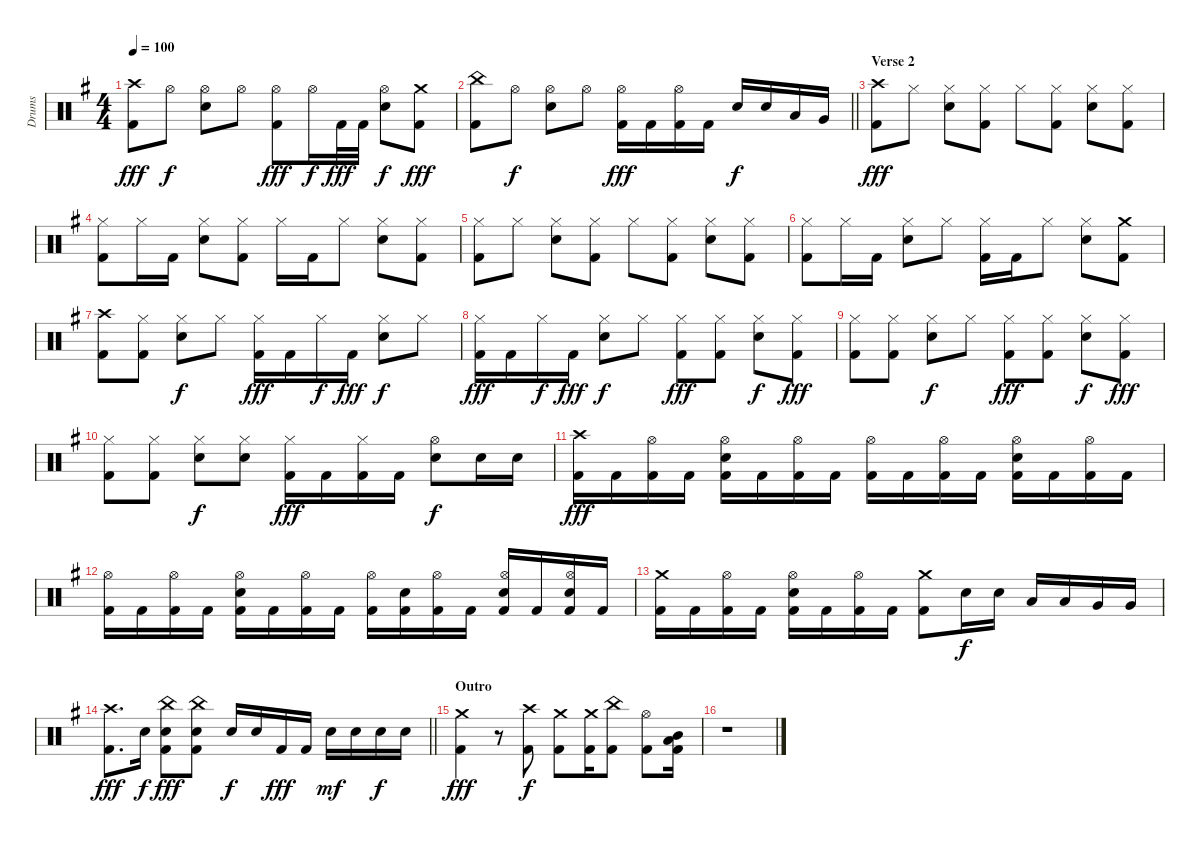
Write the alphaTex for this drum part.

\track ("Drums" "Drums") {instrument percussion}
\staff {score}
\articulation defaults
\ts (4 4)
\tempo 100
\clef neutral
\ks eminor
("Crash high (hit)" "Kick (hit) 2").8{dy fff} "Hi-Hat (open)".8{dy f} ("Hi-Hat (open)" "Snare (hit) 2").8 "Hi-Hat (open)".8 ("Hi-Hat (open)" "Kick (hit) 2").8{dy fff} "Hi-Hat (open)".16{dy f} "Kick (hit) 2".32{dy fff} "Kick (hit) 2".32 ("Hi-Hat (open)" "Snare (hit) 2").8{dy f} ("Crash medium (hit)" "Kick (hit) 2").8{dy fff} |
\barLineRight lightlight
("China (hit)" "Kick (hit) 2").8 "Hi-Hat (open)".8{dy f} ("Hi-Hat (open)" "Snare (hit) 2").8 "Hi-Hat (open)".8 ("Hi-Hat (open)" "Kick (hit) 2").16{dy fff} "Kick (hit) 2".16 ("Hi-Hat (open)" "Kick (hit) 2").16 "Kick (hit) 2".16 "Snare (hit) 2".16{dy f} "Snare (hit) 2".16 "Low Tom (hit)".16 "Very Low Tom (hit)".16 |
\section ("" "Verse 2")
("Crash high (hit)" "Kick (hit) 2").8{dy fff} "Hi-Hat (closed)".8 ("Hi-Hat (closed)" "Snare (hit) 2").8 ("Hi-Hat (closed)" "Kick (hit) 2").8 "Hi-Hat (closed)".8 ("Hi-Hat (closed)" "Kick (hit) 2").8 ("Hi-Hat (closed)" "Snare (hit) 2").8 ("Hi-Hat (closed)" "Kick (hit) 2").8 |
("Hi-Hat (closed)" "Kick (hit) 2").8 "Hi-Hat (closed)".16 "Kick (hit) 2".16 ("Hi-Hat (closed)" "Snare (hit) 2").8 ("Hi-Hat (closed)" "Kick (hit) 2").8 "Hi-Hat (closed)".16 "Kick (hit) 2".16 "Hi-Hat (closed)".8 ("Hi-Hat (closed)" "Snare (hit) 2").8 ("Hi-Hat (closed)" "Kick (hit) 2").8 |
("Hi-Hat (closed)" "Kick (hit) 2").8 "Hi-Hat (closed)".8 ("Hi-Hat (closed)" "Snare (hit) 2").8 ("Hi-Hat (closed)" "Kick (hit) 2").8 "Hi-Hat (closed)".8 ("Hi-Hat (closed)" "Kick (hit) 2").8 ("Hi-Hat (closed)" "Snare (hit) 2").8 ("Hi-Hat (closed)" "Kick (hit) 2").8 |
("Hi-Hat (closed)" "Kick (hit) 2").8 "Hi-Hat (closed)".16 "Kick (hit) 2".16 ("Hi-Hat (closed)" "Snare (hit) 2").8 "Hi-Hat (closed)".8 ("Hi-Hat (closed)" "Kick (hit) 2").16 "Kick (hit) 2".16 "Hi-Hat (closed)".8 ("Hi-Hat (closed)" "Snare (hit) 2").8 ("Crash medium (hit)" "Kick (hit) 2").8 |
("Crash high (hit)" "Kick (hit) 2").8 ("Hi-Hat (closed)" "Kick (hit) 2").8 ("Hi-Hat (closed)" "Snare (hit) 2").8{dy f} "Hi-Hat (closed)".8 ("Hi-Hat (closed)" "Kick (hit) 2").16{dy fff} "Kick (hit) 2".16 "Hi-Hat (closed)".16{dy f} "Kick (hit) 2".16{dy fff} ("Hi-Hat (closed)" "Snare (hit) 2").8{dy f} "Hi-Hat (closed)".8 |
("Hi-Hat (closed)" "Kick (hit) 2").16{dy fff} "Kick (hit) 2".16 "Hi-Hat (closed)".16{dy f} "Kick (hit) 2".16{dy fff} ("Hi-Hat (closed)" "Snare (hit) 2").8{dy f} "Hi-Hat (closed)".8 ("Hi-Hat (closed)" "Kick (hit) 2").8{dy fff} ("Hi-Hat (closed)" "Kick (hit) 2").8 ("Hi-Hat (closed)" "Snare (hit) 2").8{dy f} ("Hi-Hat (closed)" "Kick (hit) 2").8{dy fff} |
("Hi-Hat (closed)" "Kick (hit) 2").8 ("Hi-Hat (closed)" "Kick (hit) 2").8 ("Hi-Hat (closed)" "Snare (hit) 2").8{dy f} "Hi-Hat (closed)".8 ("Hi-Hat (closed)" "Kick (hit) 2").8{dy fff} ("Hi-Hat (closed)" "Kick (hit) 2").8 ("Hi-Hat (closed)" "Snare (hit) 2").8{dy f} ("Hi-Hat (closed)" "Kick (hit) 2").8{dy fff} |
("Hi-Hat (closed)" "Kick (hit) 2").8 ("Hi-Hat (closed)" "Kick (hit) 2").8 ("Hi-Hat (closed)" "Snare (hit) 2").8{dy f} ("Hi-Hat (closed)" "Snare (hit) 2").8 ("Hi-Hat (closed)" "Kick (hit) 2").16{dy fff} "Kick (hit) 2".16 ("Hi-Hat (closed)" "Kick (hit) 2").16 "Kick (hit) 2".16 ("Hi-Hat (open)" "Snare (hit) 2").8{dy f} "Snare (hit) 2".16 "Snare (hit) 2".16 |
("Crash high (hit)" "Kick (hit) 2").16{dy fff} "Kick (hit) 2".16 ("Hi-Hat (open)" "Kick (hit) 2").16 "Kick (hit) 2".16 ("Hi-Hat (open)" "Snare (hit) 2" "Kick (hit) 2").16 "Kick (hit) 2".16 ("Hi-Hat (open)" "Kick (hit) 2").16 "Kick (hit) 2".16 ("Hi-Hat (open)" "Kick (hit) 2").16 "Kick (hit) 2".16 ("Hi-Hat (open)" "Kick (hit) 2").16 "Kick (hit) 2".16 ("Hi-Hat (open)" "Snare (hit) 2" "Kick (hit) 2").16 "Kick (hit) 2".16 ("Hi-Hat (open)" "Kick (hit) 2").16 "Kick (hit) 2".16 |
("Hi-Hat (open)" "Kick (hit) 2").16 "Kick (hit) 2".16 ("Hi-Hat (open)" "Kick (hit) 2").16 "Kick (hit) 2".16 ("Hi-Hat (open)" "Snare (hit) 2" "Kick (hit) 2").16 "Kick (hit) 2".16 ("Hi-Hat (open)" "Kick (hit) 2").16 "Kick (hit) 2".16 ("Hi-Hat (open)" "Kick (hit) 2").16 ("Snare (hit) 2" "Kick (hit) 2").16 ("Hi-Hat (open)" "Kick (hit) 2").16 "Kick (hit) 2".16 ("Hi-Hat (open)" "Snare (hit) 2" "Kick (hit) 2").16 "Kick (hit) 2".16 ("Hi-Hat (open)" "Snare (hit) 2" "Kick (hit) 2").16 "Kick (hit) 2".16 |
("Crash medium (hit)" "Kick (hit) 2").16 "Kick (hit) 2".16 ("Hi-Hat (open)" "Kick (hit) 2").16 "Kick (hit) 2".16 ("Hi-Hat (open)" "Snare (hit) 2" "Kick (hit) 2").16 "Kick (hit) 2".16 ("Hi-Hat (open)" "Kick (hit) 2").16 "Kick (hit) 2".16 ("Crash medium (hit)" "Kick (hit) 2").8 "Snare (hit) 2".16{dy f} "Snare (hit) 2".16 "Low Tom (hit)".16 "Low Tom (hit)".16 "Very Low Tom (hit)".16 "Very Low Tom (hit)".16 |
\barLineRight lightlight
("Crash high (hit)" "Kick (hit) 2").8{d dy fff} "Snare (hit) 2".16{dy f} ("China (hit)" "Snare (hit) 2" "Kick (hit) 2").8{dy fff} ("China (hit)" "Snare (hit) 2" "Kick (hit) 2").8 "Snare (hit) 2".16{dy f} "Snare (hit) 2".16 "Kick (hit) 2".16{dy fff} "Kick (hit) 2".16 "Snare (hit) 2".16{dy mf} "Snare (hit) 2".16 "Snare (hit) 2".16{dy f} "Snare (hit) 2".16 |
\section ("" "Outro")
("Crash medium (hit)" "Kick (hit) 2").4{dy fff} r.8 ("Crash high (hit)" "Kick (hit) 2").8{dy f} ("Crash medium (hit)" "Kick (hit) 2").8 ("Crash medium (hit)" "Kick (hit) 2").16 ("China (hit)" "Kick (hit) 2").8 ("Hi-Hat (open)" "Kick (hit) 2").8 ("Mid Tom (hit)" "Low Tom (hit)" "Kick (hit) 2").16 |
r.1
